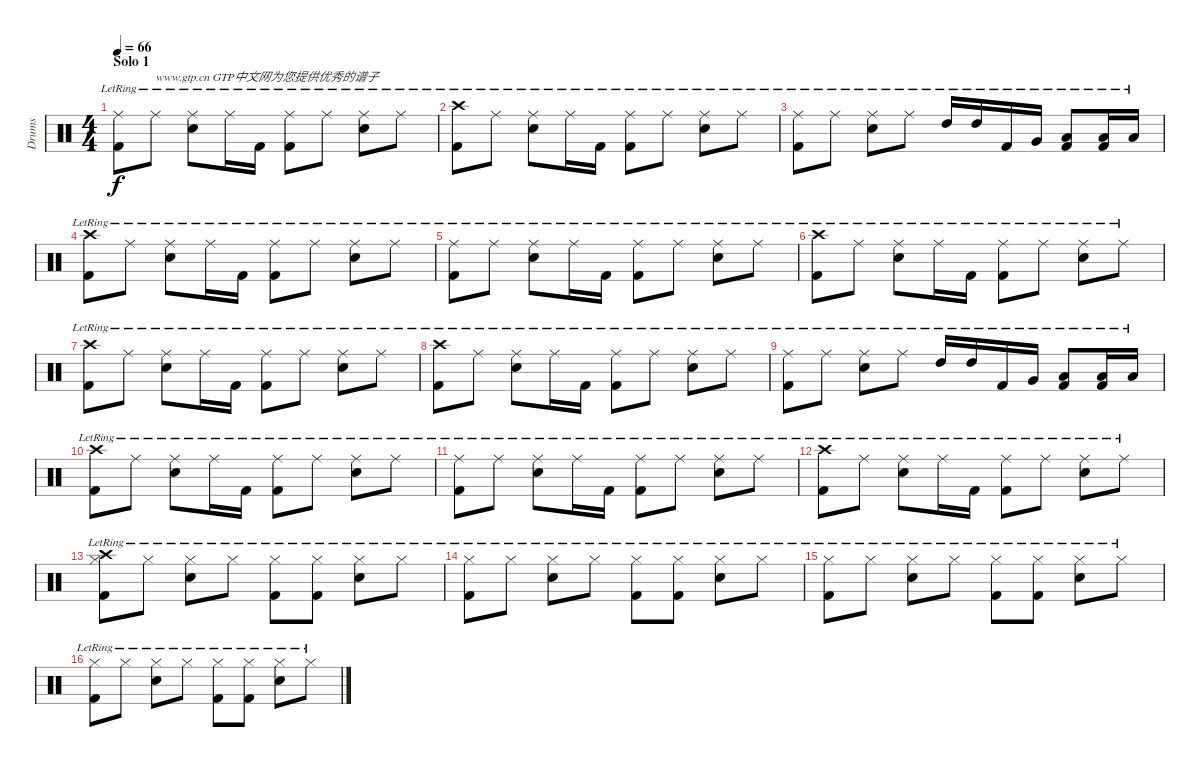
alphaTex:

\track ("Drums" "Drums") {instrument percussion}
\staff {score}
\articulation defaults
\ts (4 4)
\section ("" "Solo 1")
\tempo 66
\clef neutral
\ks c
("Ride (middle)"{lr} "Kick (hit) 2"{lr}).8{dy f} "Ride (middle)"{lr}.8{txt "www.gtp.cn GTP中文网为您提供优秀的谱子"} ("Snare (hit) 2"{lr} "Ride (middle)"{lr}).8 "Ride (middle)"{lr}.16 "Kick (hit) 2"{lr}.16 ("Kick (hit) 2"{lr} "Ride (middle)"{lr}).8 "Ride (middle)"{lr}.8 ("Snare (hit) 2"{lr} "Ride (middle)"{lr}).8 "Ride (middle)"{lr}.8 |
("Crash high (hit)"{lr} "Kick (hit) 2"{lr}).8 "Ride (middle)"{lr}.8 ("Snare (hit) 2"{lr} "Ride (middle)"{lr}).8 "Ride (middle)"{lr}.16 "Kick (hit) 2"{lr}.16 ("Kick (hit) 2"{lr} "Ride (middle)"{lr}).8 "Ride (middle)"{lr}.8 ("Snare (hit) 2"{lr} "Ride (middle)"{lr}).8 "Ride (middle)"{lr}.8 |
("Kick (hit) 2"{lr} "Ride (middle)"{lr}).8 "Ride (middle)"{lr}.8 ("Snare (hit) 2"{lr} "Ride (middle)"{lr}).8 "Ride (middle)"{lr}.8 "High Tom (hit)"{lr}.16 "High Tom (hit)"{lr}.16 "Kick (hit) 2"{lr}.16 "Very Low Tom (hit)"{lr}.16 ("Kick (hit) 2"{lr} "Low Floor Tom (hit)"{lr}).8 ("Low Floor Tom (hit)"{lr} "Kick (hit) 2"{lr}).16 "Low Floor Tom (hit)"{lr}.16 |
("Crash high (hit)"{lr} "Kick (hit) 2"{lr}).8 "Ride (middle)"{lr}.8 ("Snare (hit) 2"{lr} "Ride (middle)"{lr}).8 "Ride (middle)"{lr}.16 "Kick (hit) 2"{lr}.16 ("Kick (hit) 2"{lr} "Ride (middle)"{lr}).8 "Ride (middle)"{lr}.8 ("Snare (hit) 2"{lr} "Ride (middle)"{lr}).8 "Ride (middle)"{lr}.8 |
("Ride (middle)"{lr} "Kick (hit) 2"{lr}).8 "Ride (middle)"{lr}.8 ("Snare (hit) 2"{lr} "Ride (middle)"{lr}).8 "Ride (middle)"{lr}.16 "Kick (hit) 2"{lr}.16 ("Kick (hit) 2"{lr} "Ride (middle)"{lr}).8 "Ride (middle)"{lr}.8 ("Snare (hit) 2"{lr} "Ride (middle)"{lr}).8 "Ride (middle)"{lr}.8 |
("Crash high (hit)"{lr} "Kick (hit) 2"{lr}).8 "Ride (middle)"{lr}.8 ("Snare (hit) 2"{lr} "Ride (middle)"{lr}).8 "Ride (middle)"{lr}.16 "Kick (hit) 2"{lr}.16 ("Kick (hit) 2"{lr} "Ride (middle)"{lr}).8 "Ride (middle)"{lr}.8 ("Snare (hit) 2"{lr} "Ride (middle)"{lr}).8 "Ride (middle)"{lr}.8 |
("Crash high (hit)"{lr} "Kick (hit) 2"{lr}).8 "Ride (middle)"{lr}.8 ("Snare (hit) 2"{lr} "Ride (middle)"{lr}).8 "Ride (middle)"{lr}.16 "Kick (hit) 2"{lr}.16 ("Kick (hit) 2"{lr} "Ride (middle)"{lr}).8 "Ride (middle)"{lr}.8 ("Snare (hit) 2"{lr} "Ride (middle)"{lr}).8 "Ride (middle)"{lr}.8 |
("Crash high (hit)"{lr} "Kick (hit) 2"{lr}).8 "Ride (middle)"{lr}.8 ("Snare (hit) 2"{lr} "Ride (middle)"{lr}).8 "Ride (middle)"{lr}.16 "Kick (hit) 2"{lr}.16 ("Kick (hit) 2"{lr} "Ride (middle)"{lr}).8 "Ride (middle)"{lr}.8 ("Snare (hit) 2"{lr} "Ride (middle)"{lr}).8 "Ride (middle)"{lr}.8 |
("Kick (hit) 2"{lr} "Ride (middle)"{lr}).8 "Ride (middle)"{lr}.8 ("Snare (hit) 2"{lr} "Ride (middle)"{lr}).8 "Ride (middle)"{lr}.8 "High Tom (hit)"{lr}.16 "High Tom (hit)"{lr}.16 "Kick (hit) 2"{lr}.16 "Very Low Tom (hit)"{lr}.16 ("Kick (hit) 2"{lr} "Low Floor Tom (hit)"{lr}).8 ("Low Floor Tom (hit)"{lr} "Kick (hit) 2"{lr}).16 "Low Floor Tom (hit)"{lr}.16 |
("Crash high (hit)"{lr} "Kick (hit) 2"{lr}).8 "Ride (middle)"{lr}.8 ("Snare (hit) 2"{lr} "Ride (middle)"{lr}).8 "Ride (middle)"{lr}.16 "Kick (hit) 2"{lr}.16 ("Kick (hit) 2"{lr} "Ride (middle)"{lr}).8 "Ride (middle)"{lr}.8 ("Snare (hit) 2"{lr} "Ride (middle)"{lr}).8 "Ride (middle)"{lr}.8 |
("Ride (middle)"{lr} "Kick (hit) 2"{lr}).8 "Ride (middle)"{lr}.8 ("Snare (hit) 2"{lr} "Ride (middle)"{lr}).8 "Ride (middle)"{lr}.16 "Kick (hit) 2"{lr}.16 ("Kick (hit) 2"{lr} "Ride (middle)"{lr}).8 "Ride (middle)"{lr}.8 ("Snare (hit) 2"{lr} "Ride (middle)"{lr}).8 "Ride (middle)"{lr}.8 |
("Crash high (hit)"{lr} "Kick (hit) 2"{lr}).8 "Ride (middle)"{lr}.8 ("Snare (hit) 2"{lr} "Ride (middle)"{lr}).8 "Ride (middle)"{lr}.16 "Kick (hit) 2"{lr}.16 ("Kick (hit) 2"{lr} "Ride (middle)"{lr}).8 "Ride (middle)"{lr}.8 ("Snare (hit) 2"{lr} "Ride (middle)"{lr}).8 "Ride (middle)"{lr}.8 |
("Kick (hit) 2"{lr} "Hi-Hat (closed)"{lr} "Crash high (hit)"{lr}).8 "Hi-Hat (closed)"{lr}.8 ("Hi-Hat (closed)"{lr} "Snare (hit) 2"{lr}).8 "Hi-Hat (closed)"{lr}.8 ("Hi-Hat (closed)"{lr} "Kick (hit) 2"{lr}).8 ("Hi-Hat (closed)"{lr} "Kick (hit) 2"{lr}).8 ("Hi-Hat (closed)"{lr} "Snare (hit) 2"{lr}).8 "Hi-Hat (closed)"{lr}.8 |
("Kick (hit) 2"{lr} "Hi-Hat (closed)"{lr}).8 "Hi-Hat (closed)"{lr}.8 ("Hi-Hat (closed)"{lr} "Snare (hit) 2"{lr}).8 "Hi-Hat (closed)"{lr}.8 ("Hi-Hat (closed)"{lr} "Kick (hit) 2"{lr}).8 ("Hi-Hat (closed)"{lr} "Kick (hit) 2"{lr}).8 ("Hi-Hat (closed)"{lr} "Snare (hit) 2"{lr}).8 "Hi-Hat (closed)"{lr}.8 |
("Kick (hit) 2"{lr} "Hi-Hat (closed)"{lr}).8 "Hi-Hat (closed)"{lr}.8 ("Hi-Hat (closed)"{lr} "Snare (hit) 2"{lr}).8 "Hi-Hat (closed)"{lr}.8 ("Hi-Hat (closed)"{lr} "Kick (hit) 2"{lr}).8 ("Hi-Hat (closed)"{lr} "Kick (hit) 2"{lr}).8 ("Hi-Hat (closed)"{lr} "Snare (hit) 2"{lr}).8 "Hi-Hat (closed)"{lr}.8 |
("Kick (hit) 2"{lr} "Hi-Hat (closed)"{lr}).8 "Hi-Hat (closed)"{lr}.8 ("Hi-Hat (closed)"{lr} "Snare (hit) 2"{lr}).8 "Hi-Hat (closed)"{lr}.8 ("Hi-Hat (closed)"{lr} "Kick (hit) 2"{lr}).8 ("Hi-Hat (closed)"{lr} "Kick (hit) 2"{lr}).8 ("Hi-Hat (closed)"{lr} "Snare (hit) 2"{lr}).8 "Hi-Hat (closed)"{lr}.8
